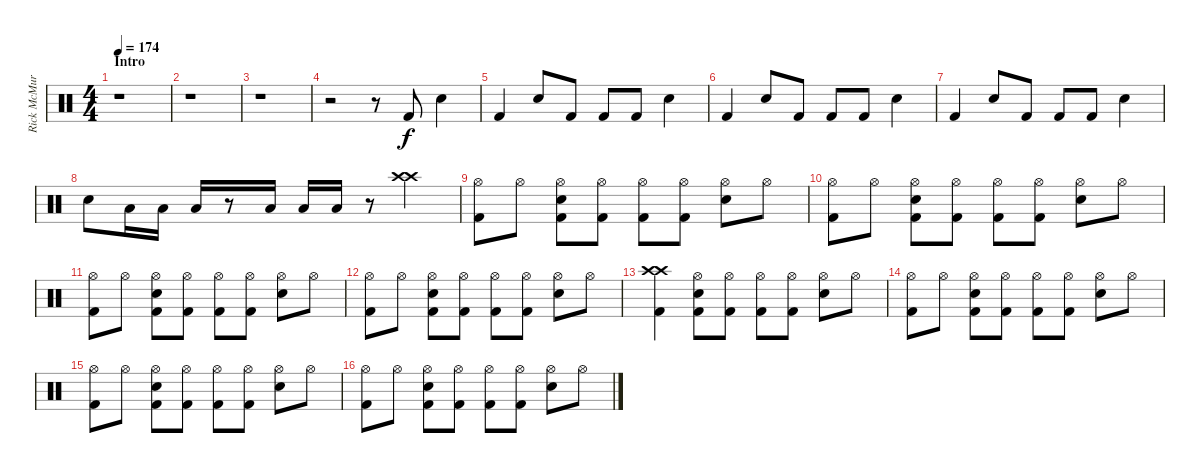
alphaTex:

\track ("Rick McMurray" "Rick McMur") {instrument percussion}
\staff {score}
\articulation defaults
\ts (4 4)
\section ("" "Intro")
\tempo 174
\clef neutral
\ks c
r.1{dy f} |
r.1 |
r.1 |
r.2 r.8 "Kick (hit) 2".8 "Snare (hit) 2".4 |
"Kick (hit) 2".4 "Snare (hit) 2".8 "Kick (hit) 2".8 "Kick (hit) 2".8 "Kick (hit) 2".8 "Snare (hit) 2".4 |
"Kick (hit) 2".4 "Snare (hit) 2".8 "Kick (hit) 2".8 "Kick (hit) 2".8 "Kick (hit) 2".8 "Snare (hit) 2".4 |
"Kick (hit) 2".4 "Snare (hit) 2".8 "Kick (hit) 2".8 "Kick (hit) 2".8 "Kick (hit) 2".8 "Snare (hit) 2".4 |
"Snare (hit) 2".8 "Low Tom (hit)".16 "Low Tom (hit)".16 "Low Tom (hit)".16 r.8 "Low Tom (hit)".16 "Low Tom (hit)".16 "Low Tom (hit)".16 r.8 ("Crash high (hit)" "Crash high (hit)").4 |
("Hi-Hat (open)" "Kick (hit) 2").8 "Hi-Hat (open)".8 ("Hi-Hat (open)" "Snare (hit) 2" "Kick (hit) 2").8 ("Hi-Hat (open)" "Kick (hit) 2").8 ("Hi-Hat (open)" "Kick (hit) 2").8 ("Hi-Hat (open)" "Kick (hit) 2").8 ("Hi-Hat (open)" "Snare (hit) 2").8 "Hi-Hat (open)".8 |
("Hi-Hat (open)" "Kick (hit) 2").8 "Hi-Hat (open)".8 ("Hi-Hat (open)" "Snare (hit) 2" "Kick (hit) 2").8 ("Hi-Hat (open)" "Kick (hit) 2").8 ("Hi-Hat (open)" "Kick (hit) 2").8 ("Hi-Hat (open)" "Kick (hit) 2").8 ("Hi-Hat (open)" "Snare (hit) 2").8 "Hi-Hat (open)".8 |
("Hi-Hat (open)" "Kick (hit) 2").8 "Hi-Hat (open)".8 ("Hi-Hat (open)" "Snare (hit) 2" "Kick (hit) 2").8 ("Hi-Hat (open)" "Kick (hit) 2").8 ("Hi-Hat (open)" "Kick (hit) 2").8 ("Hi-Hat (open)" "Kick (hit) 2").8 ("Hi-Hat (open)" "Snare (hit) 2").8 "Hi-Hat (open)".8 |
("Hi-Hat (open)" "Kick (hit) 2").8 "Hi-Hat (open)".8 ("Hi-Hat (open)" "Snare (hit) 2" "Kick (hit) 2").8 ("Hi-Hat (open)" "Kick (hit) 2").8 ("Hi-Hat (open)" "Kick (hit) 2").8 ("Hi-Hat (open)" "Kick (hit) 2").8 ("Hi-Hat (open)" "Snare (hit) 2").8 "Hi-Hat (open)".8 |
("Crash high (hit)" "Crash high (hit)" "Kick (hit) 2").4 ("Hi-Hat (open)" "Snare (hit) 2" "Kick (hit) 2").8 ("Hi-Hat (open)" "Kick (hit) 2").8 ("Hi-Hat (open)" "Kick (hit) 2").8 ("Hi-Hat (open)" "Kick (hit) 2").8 ("Hi-Hat (open)" "Snare (hit) 2").8 "Hi-Hat (open)".8 |
("Hi-Hat (open)" "Kick (hit) 2").8 "Hi-Hat (open)".8 ("Hi-Hat (open)" "Snare (hit) 2" "Kick (hit) 2").8 ("Hi-Hat (open)" "Kick (hit) 2").8 ("Hi-Hat (open)" "Kick (hit) 2").8 ("Hi-Hat (open)" "Kick (hit) 2").8 ("Hi-Hat (open)" "Snare (hit) 2").8 "Hi-Hat (open)".8 |
("Hi-Hat (open)" "Kick (hit) 2").8 "Hi-Hat (open)".8 ("Hi-Hat (open)" "Snare (hit) 2" "Kick (hit) 2").8 ("Hi-Hat (open)" "Kick (hit) 2").8 ("Hi-Hat (open)" "Kick (hit) 2").8 ("Hi-Hat (open)" "Kick (hit) 2").8 ("Hi-Hat (open)" "Snare (hit) 2").8 "Hi-Hat (open)".8 |
("Hi-Hat (open)" "Kick (hit) 2").8 "Hi-Hat (open)".8 ("Hi-Hat (open)" "Snare (hit) 2" "Kick (hit) 2").8 ("Hi-Hat (open)" "Kick (hit) 2").8 ("Hi-Hat (open)" "Kick (hit) 2").8 ("Hi-Hat (open)" "Kick (hit) 2").8 ("Hi-Hat (open)" "Snare (hit) 2").8 "Hi-Hat (open)".8
